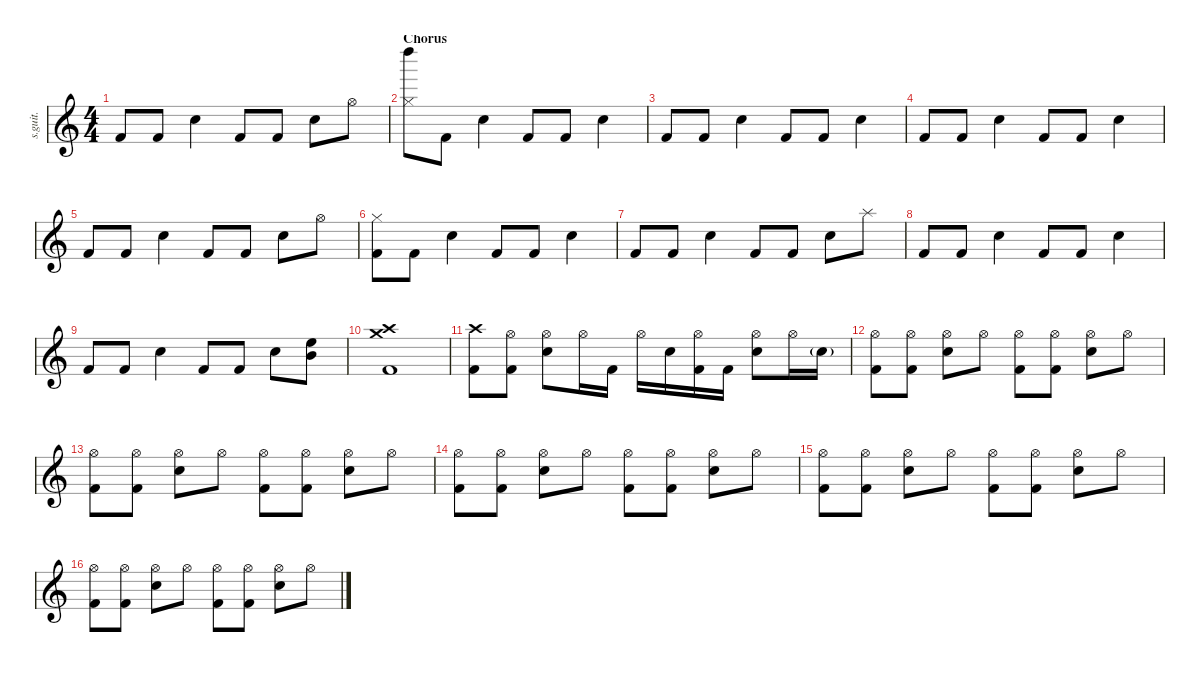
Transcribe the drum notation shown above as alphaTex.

\defaultSystemsLayout 4
\hideDynamics
\bracketExtendMode nobrackets
\track ("David Lovering" "s.guit.") {instrument percussion}
\staff {score}
\articulation defaults
\ts (4 4)
\tempo (81 hide)
\clef g2
\ks c "Kick (hit) 2".8{lyrics (0 "") lyrics (1 "") lyrics (2 "") lyrics (3 "") lyrics (4 "") dy mf} "Kick (hit) 2".8{lyrics (0 "") lyrics (1 "") lyrics (2 "") lyrics (3 "") lyrics (4 "")} "Snare (hit) 2".4{lyrics (0 "") lyrics (1 "") lyrics (2 "") lyrics (3 "") lyrics (4 "")} "Kick (hit) 2".8{lyrics (0 "") lyrics (1 "") lyrics (2 "") lyrics (3 "") lyrics (4 "")} "Kick (hit) 2".8{lyrics (0 "") lyrics (1 "") lyrics (2 "") lyrics (3 "") lyrics (4 "")} "Snare (hit) 2".8{lyrics (0 "") lyrics (1 "") lyrics (2 "") lyrics (3 "") lyrics (4 "")} "Hi-Hat (open)".8{lyrics (0 "") lyrics (1 "") lyrics (2 "") lyrics (3 "") lyrics (4 "")}
|
\section ("" "Chorus")
("Hi-Hat (closed)" "Left Maraca (hit)").8{lyrics (0 "") lyrics (1 "") lyrics (2 "") lyrics (3 "") lyrics (4 "")} "Kick (hit) 2".8{lyrics (0 "") lyrics (1 "") lyrics (2 "") lyrics (3 "") lyrics (4 "")} "Snare (hit) 2".4{lyrics (0 "") lyrics (1 "") lyrics (2 "") lyrics (3 "") lyrics (4 "")} "Kick (hit) 2".8{lyrics (0 "") lyrics (1 "") lyrics (2 "") lyrics (3 "") lyrics (4 "")} "Kick (hit) 2".8{lyrics (0 "") lyrics (1 "") lyrics (2 "") lyrics (3 "") lyrics (4 "")} "Snare (hit) 2".4{lyrics (0 "") lyrics (1 "") lyrics (2 "") lyrics (3 "") lyrics (4 "")} |
"Kick (hit) 2".8{lyrics (0 "") lyrics (1 "") lyrics (2 "") lyrics (3 "") lyrics (4 "")} "Kick (hit) 2".8{lyrics (0 "") lyrics (1 "") lyrics (2 "") lyrics (3 "") lyrics (4 "")} "Snare (hit) 2".4{lyrics (0 "") lyrics (1 "") lyrics (2 "") lyrics (3 "") lyrics (4 "")} "Kick (hit) 2".8{lyrics (0 "") lyrics (1 "") lyrics (2 "") lyrics (3 "") lyrics (4 "")} "Kick (hit) 2".8{lyrics (0 "") lyrics (1 "") lyrics (2 "") lyrics (3 "") lyrics (4 "")} "Snare (hit) 2".4{lyrics (0 "") lyrics (1 "") lyrics (2 "") lyrics (3 "") lyrics (4 "")} |
"Kick (hit) 2".8{lyrics (0 "") lyrics (1 "") lyrics (2 "") lyrics (3 "") lyrics (4 "")} "Kick (hit) 2".8{lyrics (0 "") lyrics (1 "") lyrics (2 "") lyrics (3 "") lyrics (4 "")} "Snare (hit) 2".4{lyrics (0 "") lyrics (1 "") lyrics (2 "") lyrics (3 "") lyrics (4 "")} "Kick (hit) 2".8{lyrics (0 "") lyrics (1 "") lyrics (2 "") lyrics (3 "") lyrics (4 "")} "Kick (hit) 2".8{lyrics (0 "") lyrics (1 "") lyrics (2 "") lyrics (3 "") lyrics (4 "")} "Snare (hit) 2".4{lyrics (0 "") lyrics (1 "") lyrics (2 "") lyrics (3 "") lyrics (4 "")} |
"Kick (hit) 2".8{lyrics (0 "") lyrics (1 "") lyrics (2 "") lyrics (3 "") lyrics (4 "")} "Kick (hit) 2".8{lyrics (0 "") lyrics (1 "") lyrics (2 "") lyrics (3 "") lyrics (4 "")} "Snare (hit) 2".4{lyrics (0 "") lyrics (1 "") lyrics (2 "") lyrics (3 "") lyrics (4 "")} "Kick (hit) 2".8{lyrics (0 "") lyrics (1 "") lyrics (2 "") lyrics (3 "") lyrics (4 "")} "Kick (hit) 2".8{lyrics (0 "") lyrics (1 "") lyrics (2 "") lyrics (3 "") lyrics (4 "")} "Snare (hit) 2".8{lyrics (0 "") lyrics (1 "") lyrics (2 "") lyrics (3 "") lyrics (4 "")} "Hi-Hat (open)".8{lyrics (0 "") lyrics (1 "") lyrics (2 "") lyrics (3 "") lyrics (4 "")} |
("Hi-Hat (closed)" "Kick (hit) 2").8{lyrics (0 "") lyrics (1 "") lyrics (2 "") lyrics (3 "") lyrics (4 "")} "Kick (hit) 2".8{lyrics (0 "") lyrics (1 "") lyrics (2 "") lyrics (3 "") lyrics (4 "")} "Snare (hit) 2".4{lyrics (0 "") lyrics (1 "") lyrics (2 "") lyrics (3 "") lyrics (4 "")} "Kick (hit) 2".8{lyrics (0 "") lyrics (1 "") lyrics (2 "") lyrics (3 "") lyrics (4 "")} "Kick (hit) 2".8{lyrics (0 "") lyrics (1 "") lyrics (2 "") lyrics (3 "") lyrics (4 "")} "Snare (hit) 2".4{lyrics (0 "") lyrics (1 "") lyrics (2 "") lyrics (3 "") lyrics (4 "")} |
"Kick (hit) 2".8{lyrics (0 "") lyrics (1 "") lyrics (2 "") lyrics (3 "") lyrics (4 "")} "Kick (hit) 2".8{lyrics (0 "") lyrics (1 "") lyrics (2 "") lyrics (3 "") lyrics (4 "")} "Snare (hit) 2".4{lyrics (0 "") lyrics (1 "") lyrics (2 "") lyrics (3 "") lyrics (4 "")} "Kick (hit) 2".8{lyrics (0 "") lyrics (1 "") lyrics (2 "") lyrics (3 "") lyrics (4 "")} "Kick (hit) 2".8{lyrics (0 "") lyrics (1 "") lyrics (2 "") lyrics (3 "") lyrics (4 "")} "Snare (hit) 2".8{lyrics (0 "") lyrics (1 "") lyrics (2 "") lyrics (3 "") lyrics (4 "")} "Splash (hit)".8{lyrics (0 "") lyrics (1 "") lyrics (2 "") lyrics (3 "") lyrics (4 "")} |
"Kick (hit) 2".8{lyrics (0 "") lyrics (1 "") lyrics (2 "") lyrics (3 "") lyrics (4 "")} "Kick (hit) 2".8{lyrics (0 "") lyrics (1 "") lyrics (2 "") lyrics (3 "") lyrics (4 "")} "Snare (hit) 2".4{lyrics (0 "") lyrics (1 "") lyrics (2 "") lyrics (3 "") lyrics (4 "")} "Kick (hit) 2".8{lyrics (0 "") lyrics (1 "") lyrics (2 "") lyrics (3 "") lyrics (4 "")} "Kick (hit) 2".8{lyrics (0 "") lyrics (1 "") lyrics (2 "") lyrics (3 "") lyrics (4 "")} "Snare (hit) 2".4{lyrics (0 "") lyrics (1 "") lyrics (2 "") lyrics (3 "") lyrics (4 "")} |
"Kick (hit) 2".8{lyrics (0 "") lyrics (1 "") lyrics (2 "") lyrics (3 "") lyrics (4 "")} "Kick (hit) 2".8{lyrics (0 "") lyrics (1 "") lyrics (2 "") lyrics (3 "") lyrics (4 "")} "Snare (hit) 2".4{lyrics (0 "") lyrics (1 "") lyrics (2 "") lyrics (3 "") lyrics (4 "")} "Kick (hit) 2".8{lyrics (0 "") lyrics (1 "") lyrics (2 "") lyrics (3 "") lyrics (4 "")} "Kick (hit) 2".8{lyrics (0 "") lyrics (1 "") lyrics (2 "") lyrics (3 "") lyrics (4 "")} "Snare (hit) 2".8{lyrics (0 "") lyrics (1 "") lyrics (2 "") lyrics (3 "") lyrics (4 "")} ("High Floor Tom (hit)" "Mid Tom (hit)").8{lyrics (0 "") lyrics (1 "") lyrics (2 "") lyrics (3 "") lyrics (4 "")} |
("Crash high (hit)" "Crash medium (hit)" "Kick (hit) 2").1{lyrics (0 "") lyrics (1 "") lyrics (2 "") lyrics (3 "") lyrics (4 "")} |
("Crash high (hit)" "Kick (hit) 2").8{lyrics (0 "") lyrics (1 "") lyrics (2 "") lyrics (3 "") lyrics (4 "")} ("Hi-Hat (open)" "Kick (hit) 2").8{lyrics (0 "") lyrics (1 "") lyrics (2 "") lyrics (3 "") lyrics (4 "")} ("Hi-Hat (open)" "Snare (hit) 2").8{lyrics (0 "") lyrics (1 "") lyrics (2 "") lyrics (3 "") lyrics (4 "")} "Hi-Hat (open)".16{lyrics (0 "") lyrics (1 "") lyrics (2 "") lyrics (3 "") lyrics (4 "")} "Kick (hit) 2".16{lyrics (0 "") lyrics (1 "") lyrics (2 "") lyrics (3 "") lyrics (4 "")} "Hi-Hat (open)".16{lyrics (0 "") lyrics (1 "") lyrics (2 "") lyrics (3 "") lyrics (4 "")} "Snare (hit) 2".16{lyrics (0 "") lyrics (1 "") lyrics (2 "") lyrics (3 "") lyrics (4 "")} ("Hi-Hat (open)" "Kick (hit) 2").16{lyrics (0 "") lyrics (1 "") lyrics (2 "") lyrics (3 "") lyrics (4 "")} "Kick (hit) 2".16{lyrics (0 "") lyrics (1 "") lyrics (2 "") lyrics (3 "") lyrics (4 "")} ("Snare (hit) 2" "Hi-Hat (open)").8{lyrics (0 "") lyrics (1 "") lyrics (2 "") lyrics (3 "") lyrics (4 "")} "Hi-Hat (open)".16{lyrics (0 "") lyrics (1 "") lyrics (2 "") lyrics (3 "") lyrics (4 "")} "Snare (hit) 2"{g}.16{lyrics (0 "") lyrics (1 "") lyrics (2 "") lyrics (3 "") lyrics (4 "") dy f} |
("Hi-Hat (open)" "Kick (hit) 2").8{lyrics (0 "") lyrics (1 "") lyrics (2 "") lyrics (3 "") lyrics (4 "") dy mf} ("Hi-Hat (open)" "Kick (hit) 2").8{lyrics (0 "") lyrics (1 "") lyrics (2 "") lyrics (3 "") lyrics (4 "")} ("Snare (hit) 2" "Hi-Hat (open)").8{lyrics (0 "") lyrics (1 "") lyrics (2 "") lyrics (3 "") lyrics (4 "")} "Hi-Hat (open)".8{lyrics (0 "") lyrics (1 "") lyrics (2 "") lyrics (3 "") lyrics (4 "")} ("Hi-Hat (open)" "Kick (hit) 2").8{lyrics (0 "") lyrics (1 "") lyrics (2 "") lyrics (3 "") lyrics (4 "")} ("Hi-Hat (open)" "Kick (hit) 2").8{lyrics (0 "") lyrics (1 "") lyrics (2 "") lyrics (3 "") lyrics (4 "")} ("Snare (hit) 2" "Hi-Hat (open)").8{lyrics (0 "") lyrics (1 "") lyrics (2 "") lyrics (3 "") lyrics (4 "")} "Hi-Hat (open)".8{lyrics (0 "") lyrics (1 "") lyrics (2 "") lyrics (3 "") lyrics (4 "")} |
("Hi-Hat (open)" "Kick (hit) 2").8{lyrics (0 "") lyrics (1 "") lyrics (2 "") lyrics (3 "") lyrics (4 "")} ("Hi-Hat (open)" "Kick (hit) 2").8{lyrics (0 "") lyrics (1 "") lyrics (2 "") lyrics (3 "") lyrics (4 "")} ("Snare (hit) 2" "Hi-Hat (open)").8{lyrics (0 "") lyrics (1 "") lyrics (2 "") lyrics (3 "") lyrics (4 "")} "Hi-Hat (open)".8{lyrics (0 "") lyrics (1 "") lyrics (2 "") lyrics (3 "") lyrics (4 "")} ("Hi-Hat (open)" "Kick (hit) 2").8{lyrics (0 "") lyrics (1 "") lyrics (2 "") lyrics (3 "") lyrics (4 "")} ("Hi-Hat (open)" "Kick (hit) 2").8{lyrics (0 "") lyrics (1 "") lyrics (2 "") lyrics (3 "") lyrics (4 "")} ("Snare (hit) 2" "Hi-Hat (open)").8{lyrics (0 "") lyrics (1 "") lyrics (2 "") lyrics (3 "") lyrics (4 "")} "Hi-Hat (open)".8{lyrics (0 "") lyrics (1 "") lyrics (2 "") lyrics (3 "") lyrics (4 "")} |
("Hi-Hat (open)" "Kick (hit) 2").8{lyrics (0 "") lyrics (1 "") lyrics (2 "") lyrics (3 "") lyrics (4 "")} ("Hi-Hat (open)" "Kick (hit) 2").8{lyrics (0 "") lyrics (1 "") lyrics (2 "") lyrics (3 "") lyrics (4 "")} ("Snare (hit) 2" "Hi-Hat (open)").8{lyrics (0 "") lyrics (1 "") lyrics (2 "") lyrics (3 "") lyrics (4 "")} "Hi-Hat (open)".8{lyrics (0 "") lyrics (1 "") lyrics (2 "") lyrics (3 "") lyrics (4 "")} ("Hi-Hat (open)" "Kick (hit) 2").8{lyrics (0 "") lyrics (1 "") lyrics (2 "") lyrics (3 "") lyrics (4 "")} ("Hi-Hat (open)" "Kick (hit) 2").8{lyrics (0 "") lyrics (1 "") lyrics (2 "") lyrics (3 "") lyrics (4 "")} ("Snare (hit) 2" "Hi-Hat (open)").8{lyrics (0 "") lyrics (1 "") lyrics (2 "") lyrics (3 "") lyrics (4 "")} "Hi-Hat (open)".8{lyrics (0 "") lyrics (1 "") lyrics (2 "") lyrics (3 "") lyrics (4 "")} |
("Hi-Hat (open)" "Kick (hit) 2").8{lyrics (0 "") lyrics (1 "") lyrics (2 "") lyrics (3 "") lyrics (4 "")} ("Hi-Hat (open)" "Kick (hit) 2").8{lyrics (0 "") lyrics (1 "") lyrics (2 "") lyrics (3 "") lyrics (4 "")} ("Snare (hit) 2" "Hi-Hat (open)").8{lyrics (0 "") lyrics (1 "") lyrics (2 "") lyrics (3 "") lyrics (4 "")} "Hi-Hat (open)".8{lyrics (0 "") lyrics (1 "") lyrics (2 "") lyrics (3 "") lyrics (4 "")} ("Hi-Hat (open)" "Kick (hit) 2").8{lyrics (0 "") lyrics (1 "") lyrics (2 "") lyrics (3 "") lyrics (4 "")} ("Hi-Hat (open)" "Kick (hit) 2").8{lyrics (0 "") lyrics (1 "") lyrics (2 "") lyrics (3 "") lyrics (4 "")} ("Snare (hit) 2" "Hi-Hat (open)").8{lyrics (0 "") lyrics (1 "") lyrics (2 "") lyrics (3 "") lyrics (4 "")} "Hi-Hat (open)".8{lyrics (0 "") lyrics (1 "") lyrics (2 "") lyrics (3 "") lyrics (4 "")} |
("Hi-Hat (open)" "Kick (hit) 2").8{lyrics (0 "") lyrics (1 "") lyrics (2 "") lyrics (3 "") lyrics (4 "")} ("Hi-Hat (open)" "Kick (hit) 2").8{lyrics (0 "") lyrics (1 "") lyrics (2 "") lyrics (3 "") lyrics (4 "")} ("Snare (hit) 2" "Hi-Hat (open)").8{lyrics (0 "") lyrics (1 "") lyrics (2 "") lyrics (3 "") lyrics (4 "")} "Hi-Hat (open)".8{lyrics (0 "") lyrics (1 "") lyrics (2 "") lyrics (3 "") lyrics (4 "")} ("Hi-Hat (open)" "Kick (hit) 2").8{lyrics (0 "") lyrics (1 "") lyrics (2 "") lyrics (3 "") lyrics (4 "")} ("Hi-Hat (open)" "Kick (hit) 2").8{lyrics (0 "") lyrics (1 "") lyrics (2 "") lyrics (3 "") lyrics (4 "")} ("Snare (hit) 2" "Hi-Hat (open)").8{lyrics (0 "") lyrics (1 "") lyrics (2 "") lyrics (3 "") lyrics (4 "")} "Hi-Hat (open)".8{lyrics (0 "") lyrics (1 "") lyrics (2 "") lyrics (3 "") lyrics (4 "")}
